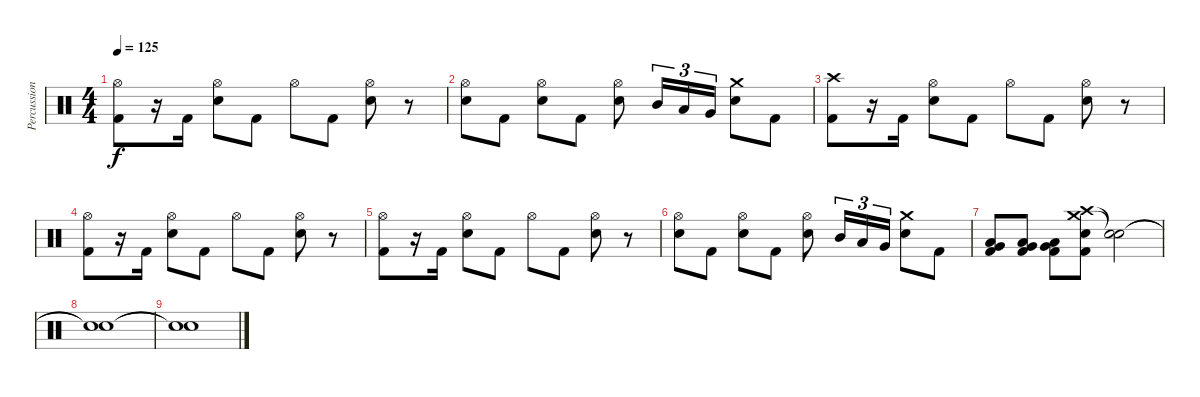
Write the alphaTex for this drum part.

\track ("Percussion" "Percussion") {instrument percussion}
\staff {score}
\articulation defaults
\ts (4 4)
\tempo 125
\clef neutral
\ks c
("Hi-Hat (open)" "Kick (hit) 2").8{dy f} r.16 "Kick (hit) 2".16 ("Hi-Hat (open)" "Snare (hit) 2").8 "Kick (hit) 2".8 "Hi-Hat (open)".8 "Kick (hit) 2".8 ("Hi-Hat (open)" "Snare (hit) 2").8 r.8 |
("Hi-Hat (open)" "Snare (hit) 2").8 "Kick (hit) 2".8 ("Hi-Hat (open)" "Snare (hit) 2").8 "Kick (hit) 2".8 ("Hi-Hat (open)" "Snare (hit) 2").8 "Mid Tom (hit)".16{tu (3 2)} "Low Tom (hit)".16{tu (3 2)} "Very Low Tom (hit)".16{tu (3 2)} ("Crash medium (hit)" "Snare (hit) 2").8 "Kick (hit) 2".8 |
("Crash high (hit)" "Kick (hit) 2").8 r.16 "Kick (hit) 2".16 ("Hi-Hat (open)" "Snare (hit) 2").8 "Kick (hit) 2".8 "Hi-Hat (open)".8 "Kick (hit) 2".8 ("Hi-Hat (open)" "Snare (hit) 2").8 r.8 |
("Hi-Hat (open)" "Kick (hit) 2").8 r.16 "Kick (hit) 2".16 ("Hi-Hat (open)" "Snare (hit) 2").8 "Kick (hit) 2".8 "Hi-Hat (open)".8 "Kick (hit) 2".8 ("Hi-Hat (open)" "Snare (hit) 2").8 r.8 |
("Hi-Hat (open)" "Kick (hit) 2").8 r.16 "Kick (hit) 2".16 ("Hi-Hat (open)" "Snare (hit) 2").8 "Kick (hit) 2".8 "Hi-Hat (open)".8 "Kick (hit) 2".8 ("Hi-Hat (open)" "Snare (hit) 2").8 r.8 |
("Hi-Hat (open)" "Snare (hit) 2").8 "Kick (hit) 2".8 ("Hi-Hat (open)" "Snare (hit) 2").8 "Kick (hit) 2".8 ("Hi-Hat (open)" "Snare (hit) 2").8 "Mid Tom (hit)".16{tu (3 2)} "Low Tom (hit)".16{tu (3 2)} "Very Low Tom (hit)".16{tu (3 2)} ("Crash medium (hit)" "Snare (hit) 2").8 "Kick (hit) 2".8 |
("Very Low Tom (hit)" "Low Tom (hit)" "Kick (hit) 2").8 ("Very Low Tom (hit)" "Low Tom (hit)" "Kick (hit) 2").8 ("Very Low Tom (hit)" "Low Tom (hit)" "Kick (hit) 2").8 ("Crash medium (hit)" "Crash high (hit)" "Snare (hit) 2" "Kick (hit) 2").8 ("Snare (hit)"{t} "Snare (hit)"{t}).2 |
("Snare (hit)"{t} "Snare (hit)"{t}).1 |
("Snare (hit)"{t} "Snare (hit)"{t}).1
